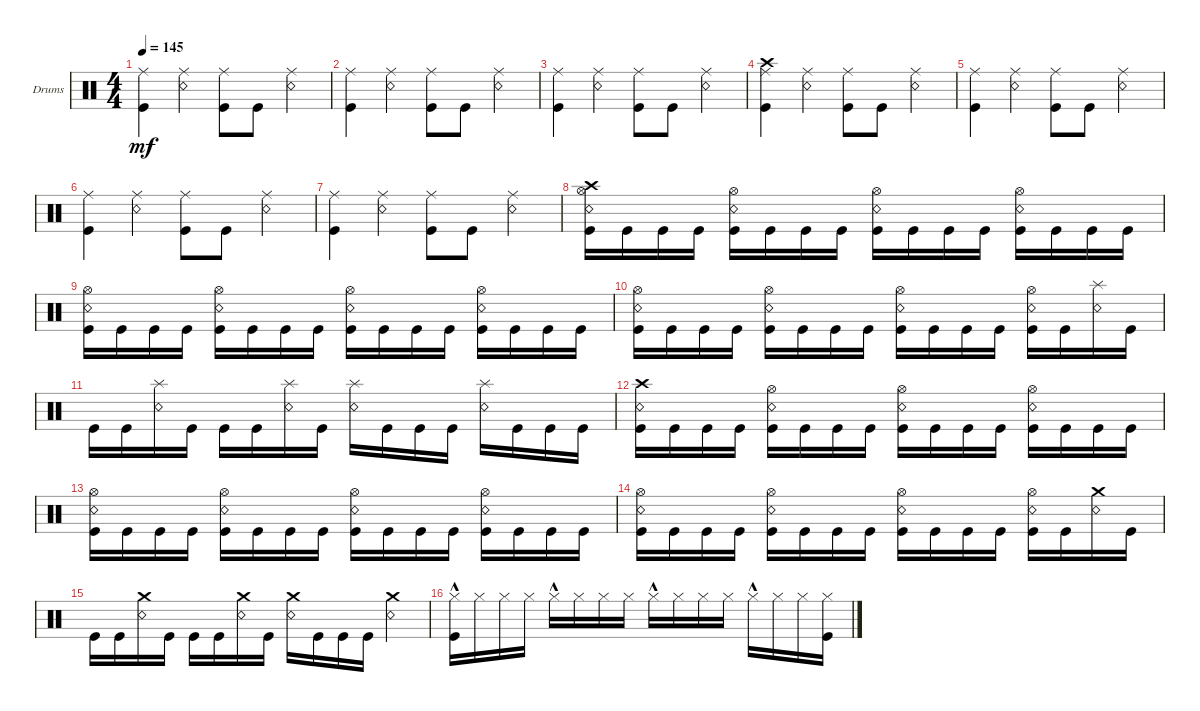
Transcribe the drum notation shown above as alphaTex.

\defaultSystemsLayout 4
\bracketExtendMode groupsimilarinstruments
\firstSystemTrackNameOrientation horizontal
\otherSystemsTrackNameOrientation horizontal
\track ("Drumkit" "Drums") {instrument percussion}
\staff {score}
\articulation defaults
\ts (4 4)
\tempo 145
\clef neutral
\ks c
("Kick (hit)" "Ride (middle)").4{dy mf} ("Ride (middle)" "Snare (rim shot)").4 ("Kick (hit)" "Ride (middle)").8 "Kick (hit)".8 ("Ride (middle)" "Snare (rim shot)").4 |
("Kick (hit)" "Ride (middle)").4 ("Ride (middle)" "Snare (rim shot)").4 ("Kick (hit)" "Ride (middle)").8 "Kick (hit)".8 ("Ride (middle)" "Snare (rim shot)").4 |
("Kick (hit)" "Ride (middle)").4 ("Ride (middle)" "Snare (rim shot)").4 ("Kick (hit)" "Ride (middle)").8 "Kick (hit)".8 ("Ride (middle)" "Snare (rim shot)").4 |
("Kick (hit)" "Ride (middle)" "Crash high (hit)").4 ("Ride (middle)" "Snare (rim shot)").4 ("Kick (hit)" "Ride (middle)").8 "Kick (hit)".8 ("Ride (middle)" "Snare (rim shot)").4 |
("Kick (hit)" "Ride (middle)").4 ("Ride (middle)" "Snare (rim shot)").4 ("Kick (hit)" "Ride (middle)").8 "Kick (hit)".8 ("Ride (middle)" "Snare (rim shot)").4 |
("Kick (hit)" "Ride (middle)").4 ("Ride (middle)" "Snare (rim shot)").4 ("Kick (hit)" "Ride (middle)").8 "Kick (hit)".8 ("Ride (middle)" "Snare (rim shot)").4 |
("Kick (hit)" "Ride (middle)").4 ("Ride (middle)" "Snare (rim shot)").4 ("Kick (hit)" "Ride (middle)").8 "Kick (hit)".8 ("Ride (middle)" "Snare (rim shot)").4 |
("Snare (rim shot)" "Kick (hit)" "Hi-Hat (open)" "Crash high (hit)").16 "Kick (hit)".16 "Kick (hit)".16 "Kick (hit)".16 ("Snare (rim shot)" "Kick (hit)" "Hi-Hat (open)").16 "Kick (hit)".16 "Kick (hit)".16 "Kick (hit)".16 ("Snare (rim shot)" "Kick (hit)" "Hi-Hat (open)").16 "Kick (hit)".16 "Kick (hit)".16 "Kick (hit)".16 ("Snare (rim shot)" "Kick (hit)" "Hi-Hat (open)").16 "Kick (hit)".16 "Kick (hit)".16 "Kick (hit)".16 |
("Snare (rim shot)" "Kick (hit)" "Hi-Hat (open)").16 "Kick (hit)".16 "Kick (hit)".16 "Kick (hit)".16 ("Snare (rim shot)" "Kick (hit)" "Hi-Hat (open)").16 "Kick (hit)".16 "Kick (hit)".16 "Kick (hit)".16 ("Snare (rim shot)" "Kick (hit)" "Hi-Hat (open)").16 "Kick (hit)".16 "Kick (hit)".16 "Kick (hit)".16 ("Snare (rim shot)" "Kick (hit)" "Hi-Hat (open)").16 "Kick (hit)".16 "Kick (hit)".16 "Kick (hit)".16 |
("Snare (rim shot)" "Kick (hit)" "Hi-Hat (open)").16 "Kick (hit)".16 "Kick (hit)".16 "Kick (hit)".16 ("Snare (rim shot)" "Kick (hit)" "Hi-Hat (open)").16 "Kick (hit)".16 "Kick (hit)".16 "Kick (hit)".16 ("Snare (rim shot)" "Kick (hit)" "Hi-Hat (open)").16 "Kick (hit)".16 "Kick (hit)".16 "Kick (hit)".16 ("Snare (rim shot)" "Kick (hit)" "Hi-Hat (open)").16 "Kick (hit)".16 ("Snare (rim shot)" "Splash (hit)").16 "Kick (hit)".16 |
"Kick (hit)".16 "Kick (hit)".16 ("Snare (rim shot)" "Splash (hit)").16 "Kick (hit)".16 "Kick (hit)".16 "Kick (hit)".16 ("Snare (rim shot)" "Splash (hit)").16 "Kick (hit)".16 ("Snare (rim shot)" "Splash (hit)").16 "Kick (hit)".16 "Kick (hit)".16 "Kick (hit)".16 ("Snare (rim shot)" "Splash (hit)").16 "Kick (hit)".16 "Kick (hit)".16 "Kick (hit)".16 |
("Snare (rim shot)" "Kick (hit)" "Crash high (hit)").16 "Kick (hit)".16 "Kick (hit)".16 "Kick (hit)".16 ("Snare (rim shot)" "Kick (hit)" "Hi-Hat (open)").16 "Kick (hit)".16 "Kick (hit)".16 "Kick (hit)".16 ("Snare (rim shot)" "Kick (hit)" "Hi-Hat (open)").16 "Kick (hit)".16 "Kick (hit)".16 "Kick (hit)".16 ("Snare (rim shot)" "Kick (hit)" "Hi-Hat (open)").16 "Kick (hit)".16 "Kick (hit)".16 "Kick (hit)".16 |
("Snare (rim shot)" "Kick (hit)" "Hi-Hat (open)").16 "Kick (hit)".16 "Kick (hit)".16 "Kick (hit)".16 ("Snare (rim shot)" "Kick (hit)" "Hi-Hat (open)").16 "Kick (hit)".16 "Kick (hit)".16 "Kick (hit)".16 ("Snare (rim shot)" "Kick (hit)" "Hi-Hat (open)").16 "Kick (hit)".16 "Kick (hit)".16 "Kick (hit)".16 ("Snare (rim shot)" "Kick (hit)" "Hi-Hat (open)").16 "Kick (hit)".16 "Kick (hit)".16 "Kick (hit)".16 |
("Snare (rim shot)" "Kick (hit)" "Hi-Hat (open)").16 "Kick (hit)".16 "Kick (hit)".16 "Kick (hit)".16 ("Snare (rim shot)" "Kick (hit)" "Hi-Hat (open)").16 "Kick (hit)".16 "Kick (hit)".16 "Kick (hit)".16 ("Snare (rim shot)" "Kick (hit)" "Hi-Hat (open)").16 "Kick (hit)".16 "Kick (hit)".16 "Kick (hit)".16 ("Snare (rim shot)" "Kick (hit)" "Hi-Hat (open)").16 "Kick (hit)".16 ("Snare (rim shot)" "Crash medium (hit)").16 "Kick (hit)".16 |
"Kick (hit)".16 "Kick (hit)".16 ("Snare (rim shot)" "Crash medium (hit)").16 "Kick (hit)".16 "Kick (hit)".16 "Kick (hit)".16 ("Snare (rim shot)" "Crash medium (hit)").16 "Kick (hit)".16 ("Snare (rim shot)" "Crash medium (hit)").16 "Kick (hit)".16 "Kick (hit)".16 "Kick (hit)".16 ("Snare (rim shot)" "Crash medium (hit)").4 |
("Hi-Hat (closed)"{hac} "Kick (hit)").16 "Hi-Hat (closed)".16 "Hi-Hat (closed)".16 "Hi-Hat (closed)".16 "Hi-Hat (closed)"{hac}.16 "Hi-Hat (closed)".16 "Hi-Hat (closed)".16 "Hi-Hat (closed)".16 "Hi-Hat (closed)"{hac}.16 "Hi-Hat (closed)".16 "Hi-Hat (closed)".16 "Hi-Hat (closed)".16 "Hi-Hat (closed)"{hac}.16 "Hi-Hat (closed)".16 "Hi-Hat (closed)".16 ("Hi-Hat (closed)" "Kick (hit)").16
